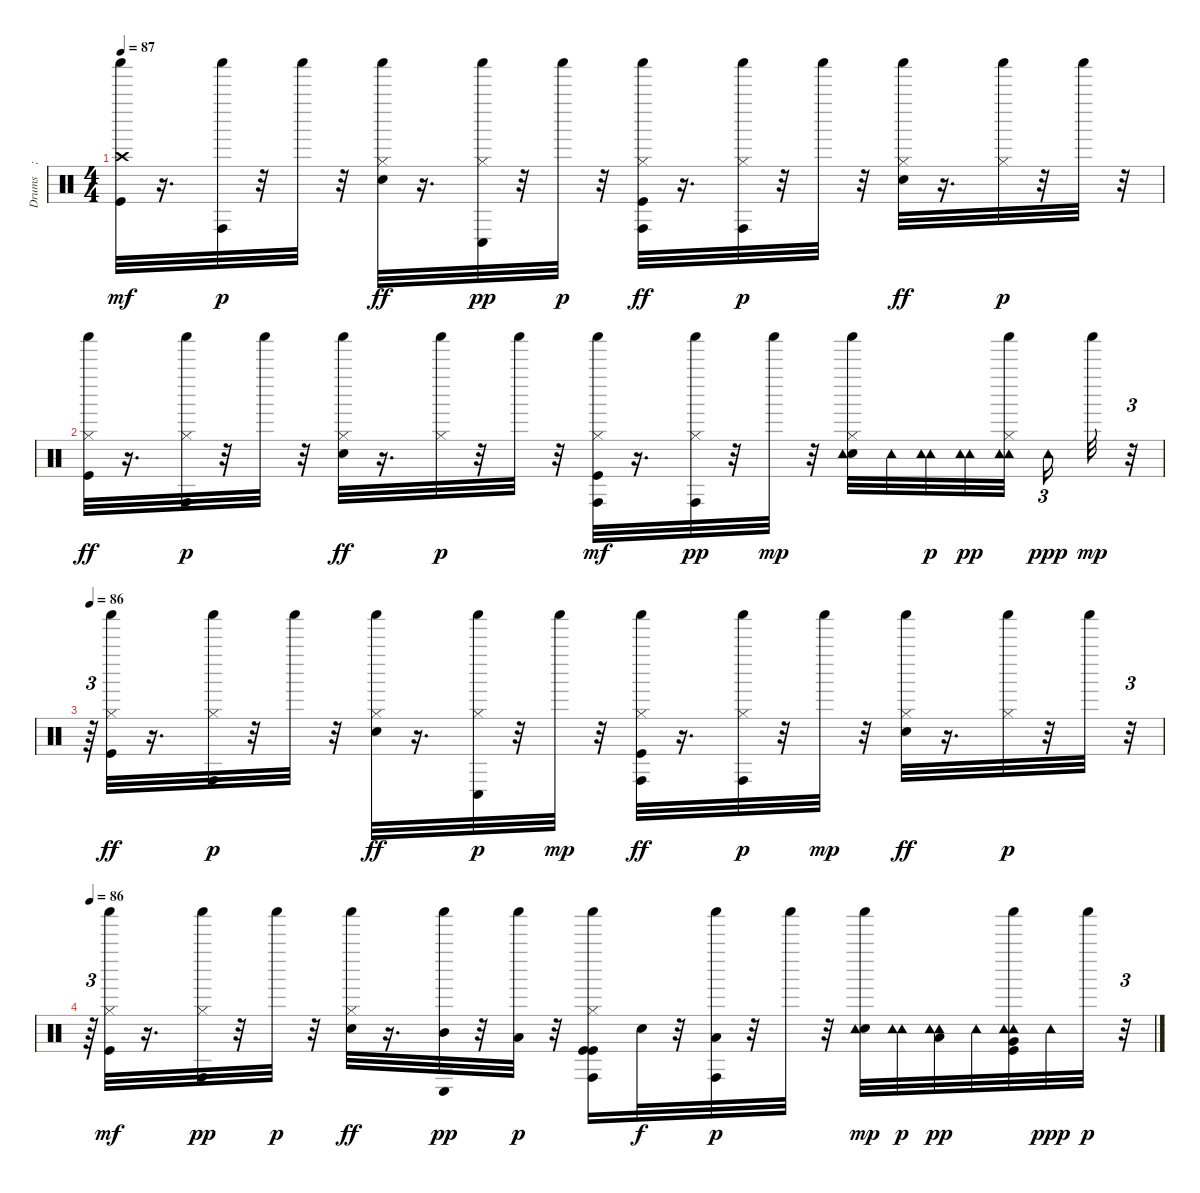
\track ("Drums    ; Standard" "Drums    ;") {instrument percussion}
\staff {score}
\articulation defaults
\ts (4 4)
\tempo 87
\clef neutral
\ks c
("Shaker (hit)" "Kick (hit)" "Crash high (hit)").32{dy mf} r.16{d} ("Shaker (hit)" "Conga high (hit)").32{dy p} r.32 "Shaker (hit)".32 r.32 ("Electric Snare (hit)" "Shaker (hit)" "Hi-Hat (closed)").32{dy ff} r.16{d} ("Shaker (hit)" "Hi-Hat (closed)" "Conga low (hit)").32{dy pp} r.32 "Shaker (hit)".32{dy p} r.32 ("Kick (hit)" "Shaker (hit)" "Conga high (hit)" "Hi-Hat (closed)").32{dy ff} r.16{d} ("Conga high (hit)" "Shaker (hit)" "Hi-Hat (closed)").32{dy p} r.32 "Shaker (hit)".32 r.32 ("Electric Snare (hit)" "Shaker (hit)" "Hi-Hat (closed)").32{dy ff} r.16{d} ("Shaker (hit)" "Hi-Hat (closed)").32{dy p} r.32 "Shaker (hit)".32 r.32 |
("Kick (hit)" "Shaker (hit)" "Hi-Hat (closed)").32{dy ff} r.16{d} ("Shaker (hit)" "Hi-Hat (closed)" "Conga high (hit)").32{dy p} r.32 "Shaker (hit)".32 r.32 ("Electric Snare (hit)" "Shaker (hit)" "Hi-Hat (closed)").32{dy ff} r.16{d} ("Shaker (hit)" "Hi-Hat (closed)").32{dy p} r.32 "Shaker (hit)".32 r.32 ("Kick (hit)" "Shaker (hit)" "Conga high (hit)" "Hi-Hat (closed)").32{dy mf} r.16{d} ("Conga high (hit)" "Shaker (hit)" "Hi-Hat (closed)").32{dy pp} r.32 "Shaker (hit)".32{dy mp} r.32 ("Shaker (hit)" "Electric Snare (hit)" "Hi-Hat (closed)" "Tambourine (hit)").32 "Tambourine (hit)".32 ("Tambourine (hit)" "Tambourine (hit)").32{dy p} ("Tambourine (hit)" "Tambourine (hit)").32{dy pp} ("Tambourine (hit)" "Shaker (hit)" "Hi-Hat (closed)" "Tambourine (hit)").32 "Tambourine (hit)".16{tu (3 2) dy ppp} "Shaker (hit)".32{dy mp} r.32{tu (3 2)} |
\tempo 86
r.64{tu (3 2)} ("Kick (hit)" "Shaker (hit)" "Hi-Hat (closed)").32{dy ff} r.16{d} ("Conga high (hit)" "Shaker (hit)" "Hi-Hat (closed)").32{dy p} r.32 "Shaker (hit)".32 r.32 ("Electric Snare (hit)" "Shaker (hit)" "Hi-Hat (closed)").32{dy ff} r.16{d} ("Conga low (hit)" "Shaker (hit)" "Hi-Hat (closed)").32{dy p} r.32 "Shaker (hit)".32{dy mp} r.32 ("Kick (hit)" "Conga high (hit)" "Shaker (hit)" "Hi-Hat (closed)").32{dy ff} r.16{d} ("Conga high (hit)" "Shaker (hit)" "Hi-Hat (closed)").32{dy p} r.32 "Shaker (hit)".32{dy mp} r.32 ("Electric Snare (hit)" "Shaker (hit)" "Hi-Hat (closed)").32{dy ff} r.16{d} ("Hi-Hat (closed)" "Shaker (hit)").32{dy p} r.32 "Shaker (hit)".32 r.32{tu (3 2)} |
\tempo 86
r.64{tu (3 2)} ("Shaker (hit)" "Kick (hit)" "Hi-Hat (closed)").32{dy mf} r.16{d} ("Shaker (hit)" "Conga high (hit)" "Hi-Hat (closed)").32{dy pp} r.32 "Shaker (hit)".32{dy p} r.32 ("Electric Snare (hit)" "Shaker (hit)" "Hi-Hat (closed)").32{dy ff} r.16{d} ("Mid Tom (hit)" "Shaker (hit)" "Conga low (hit)").32{dy pp} r.32 ("Shaker (hit)" "Low Tom (hit)").32{dy p} r.32 ("Kick (hit)" "Kick (hit)" "Hi-Hat (closed)" "Shaker (hit)" "Conga high (hit)").16 "Electric Snare (hit)".32{dy f} r.32 ("Low Floor Tom (hit)" "Shaker (hit)" "Conga high (hit)").32{dy p} r.32 "Shaker (hit)".32 r.32 ("Electric Snare (hit)" "Shaker (hit)" "Tambourine (hit)").32{dy mp} ("Tambourine (hit)" "Tambourine (hit)").32{dy p} ("Tambourine (hit)" "Low Tom (hit)" "Tambourine (hit)").32{dy pp} "Tambourine (hit)".32 ("Tambourine (hit)" "Shaker (hit)" "Very Low Tom (hit)" "Kick (hit)" "Tambourine (hit)").32 "Tambourine (hit)".32{dy ppp} "Shaker (hit)".32{dy p} r.32{tu (3 2)}
